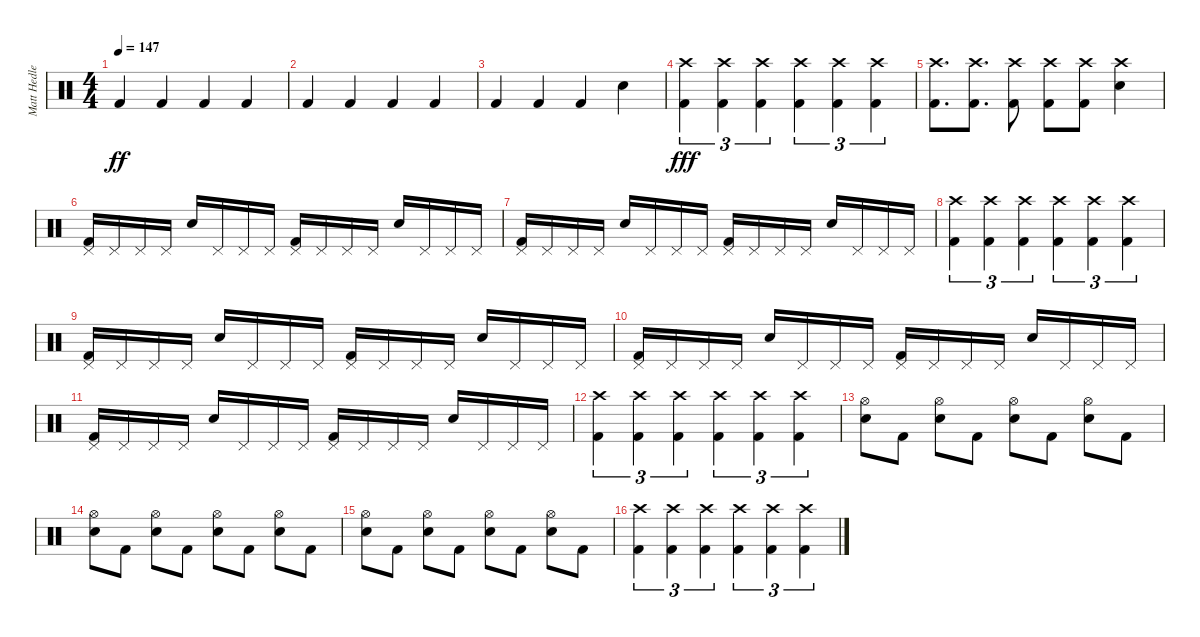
\track ("Matt Hedlers" "Matt Hedle") {instrument percussion}
\staff {score}
\articulation defaults
\ts (4 4)
\tempo 147
\clef neutral
\ks c "Kick (hit) 2".4{dy ff} "Kick (hit) 2".4 "Kick (hit) 2".4 "Kick (hit) 2".4
|
"Kick (hit) 2".4 "Kick (hit) 2".4 "Kick (hit) 2".4 "Kick (hit) 2".4 |
"Kick (hit) 2".4 "Kick (hit) 2".4 "Kick (hit) 2".4 "Snare (hit) 2".4 |
("Crash high (hit)" "Kick (hit) 2").4{tu (3 2) dy fff} ("Crash high (hit)" "Kick (hit) 2").4{tu (3 2)} ("Crash high (hit)" "Kick (hit) 2").4{tu (3 2)} ("Crash high (hit)" "Kick (hit) 2").4{tu (3 2)} ("Crash high (hit)" "Kick (hit) 2").4{tu (3 2)} ("Crash high (hit)" "Kick (hit) 2").4{tu (3 2)} |
("Crash high (hit)" "Kick (hit) 2").8{d} ("Crash high (hit)" "Kick (hit) 2").8{d} ("Crash high (hit)" "Kick (hit) 2").8 ("Crash high (hit)" "Kick (hit) 2").8 ("Crash high (hit)" "Kick (hit) 2").8 ("Crash high (hit)" "Snare (hit) 2").4 |
("Pedal Hi-Hat (hit)" "Kick (hit) 2").16 "Pedal Hi-Hat (hit)".16 "Pedal Hi-Hat (hit)".16 "Pedal Hi-Hat (hit)".16 "Snare (hit) 2".16 "Pedal Hi-Hat (hit)".16 "Pedal Hi-Hat (hit)".16 "Pedal Hi-Hat (hit)".16 ("Pedal Hi-Hat (hit)" "Kick (hit) 2").16 "Pedal Hi-Hat (hit)".16 "Pedal Hi-Hat (hit)".16 "Pedal Hi-Hat (hit)".16 "Snare (hit) 2".16 "Pedal Hi-Hat (hit)".16 "Pedal Hi-Hat (hit)".16 "Pedal Hi-Hat (hit)".16 |
("Pedal Hi-Hat (hit)" "Kick (hit) 2").16 "Pedal Hi-Hat (hit)".16 "Pedal Hi-Hat (hit)".16 "Pedal Hi-Hat (hit)".16 "Snare (hit) 2".16 "Pedal Hi-Hat (hit)".16 "Pedal Hi-Hat (hit)".16 "Pedal Hi-Hat (hit)".16 ("Pedal Hi-Hat (hit)" "Kick (hit) 2").16 "Pedal Hi-Hat (hit)".16 "Pedal Hi-Hat (hit)".16 "Pedal Hi-Hat (hit)".16 "Snare (hit) 2".16 "Pedal Hi-Hat (hit)".16 "Pedal Hi-Hat (hit)".16 "Pedal Hi-Hat (hit)".16 |
("Crash high (hit)" "Kick (hit) 2").4{tu (3 2)} ("Crash high (hit)" "Kick (hit) 2").4{tu (3 2)} ("Crash high (hit)" "Kick (hit) 2").4{tu (3 2)} ("Crash high (hit)" "Kick (hit) 2").4{tu (3 2)} ("Crash high (hit)" "Kick (hit) 2").4{tu (3 2)} ("Crash high (hit)" "Kick (hit) 2").4{tu (3 2)} |
("Pedal Hi-Hat (hit)" "Kick (hit) 2").16 "Pedal Hi-Hat (hit)".16 "Pedal Hi-Hat (hit)".16 "Pedal Hi-Hat (hit)".16 "Snare (hit) 2".16 "Pedal Hi-Hat (hit)".16 "Pedal Hi-Hat (hit)".16 "Pedal Hi-Hat (hit)".16 ("Pedal Hi-Hat (hit)" "Kick (hit) 2").16 "Pedal Hi-Hat (hit)".16 "Pedal Hi-Hat (hit)".16 "Pedal Hi-Hat (hit)".16 "Snare (hit) 2".16 "Pedal Hi-Hat (hit)".16 "Pedal Hi-Hat (hit)".16 "Pedal Hi-Hat (hit)".16 |
("Pedal Hi-Hat (hit)" "Kick (hit) 2").16 "Pedal Hi-Hat (hit)".16 "Pedal Hi-Hat (hit)".16 "Pedal Hi-Hat (hit)".16 "Snare (hit) 2".16 "Pedal Hi-Hat (hit)".16 "Pedal Hi-Hat (hit)".16 "Pedal Hi-Hat (hit)".16 ("Pedal Hi-Hat (hit)" "Kick (hit) 2").16 "Pedal Hi-Hat (hit)".16 "Pedal Hi-Hat (hit)".16 "Pedal Hi-Hat (hit)".16 "Snare (hit) 2".16 "Pedal Hi-Hat (hit)".16 "Pedal Hi-Hat (hit)".16 "Pedal Hi-Hat (hit)".16 |
("Pedal Hi-Hat (hit)" "Kick (hit) 2").16 "Pedal Hi-Hat (hit)".16 "Pedal Hi-Hat (hit)".16 "Pedal Hi-Hat (hit)".16 "Snare (hit) 2".16 "Pedal Hi-Hat (hit)".16 "Pedal Hi-Hat (hit)".16 "Pedal Hi-Hat (hit)".16 ("Pedal Hi-Hat (hit)" "Kick (hit) 2").16 "Pedal Hi-Hat (hit)".16 "Pedal Hi-Hat (hit)".16 "Pedal Hi-Hat (hit)".16 "Snare (hit) 2".16 "Pedal Hi-Hat (hit)".16 "Pedal Hi-Hat (hit)".16 "Pedal Hi-Hat (hit)".16 |
("Crash high (hit)" "Kick (hit) 2").4{tu (3 2)} ("Crash high (hit)" "Kick (hit) 2").4{tu (3 2)} ("Crash high (hit)" "Kick (hit) 2").4{tu (3 2)} ("Crash high (hit)" "Kick (hit) 2").4{tu (3 2)} ("Crash high (hit)" "Kick (hit) 2").4{tu (3 2)} ("Crash high (hit)" "Kick (hit) 2").4{tu (3 2)} |
("Hi-Hat (open)" "Snare (hit) 2").8 "Kick (hit) 2".8 ("Hi-Hat (open)" "Snare (hit) 2").8 "Kick (hit) 2".8 ("Hi-Hat (open)" "Snare (hit) 2").8 "Kick (hit) 2".8 ("Hi-Hat (open)" "Snare (hit) 2").8 "Kick (hit) 2".8 |
("Hi-Hat (open)" "Snare (hit) 2").8 "Kick (hit) 2".8 ("Hi-Hat (open)" "Snare (hit) 2").8 "Kick (hit) 2".8 ("Hi-Hat (open)" "Snare (hit) 2").8 "Kick (hit) 2".8 ("Hi-Hat (open)" "Snare (hit) 2").8 "Kick (hit) 2".8 |
("Hi-Hat (open)" "Snare (hit) 2").8 "Kick (hit) 2".8 ("Hi-Hat (open)" "Snare (hit) 2").8 "Kick (hit) 2".8 ("Hi-Hat (open)" "Snare (hit) 2").8 "Kick (hit) 2".8 ("Hi-Hat (open)" "Snare (hit) 2").8 "Kick (hit) 2".8 |
("Crash high (hit)" "Kick (hit) 2").4{tu (3 2)} ("Crash high (hit)" "Kick (hit) 2").4{tu (3 2)} ("Crash high (hit)" "Kick (hit) 2").4{tu (3 2)} ("Crash high (hit)" "Kick (hit) 2").4{tu (3 2)} ("Crash high (hit)" "Kick (hit) 2").4{tu (3 2)} ("Crash high (hit)" "Kick (hit) 2").4{tu (3 2)}
